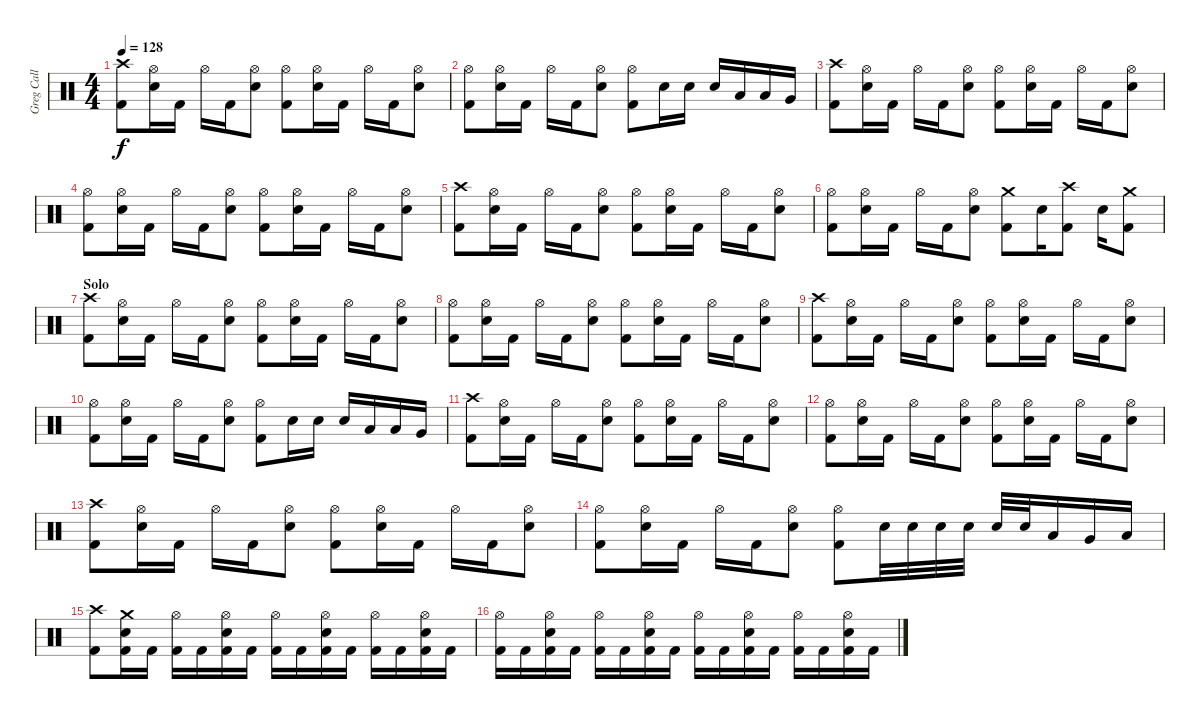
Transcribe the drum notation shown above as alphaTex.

\track ("Greg Call (Drums)" "Greg Call ") {instrument percussion}
\staff {score}
\articulation defaults
\ts (4 4)
\tempo 128
\clef neutral
\ks c
("Crash high (hit)" "Kick (hit) 2").8{dy f} ("Hi-Hat (open)" "Snare (hit) 2").16 "Kick (hit) 2".16 "Hi-Hat (open)".16 "Kick (hit) 2".16 ("Hi-Hat (open)" "Snare (hit) 2").8 ("Hi-Hat (open)" "Kick (hit) 2").8 ("Hi-Hat (open)" "Snare (hit) 2").16 "Kick (hit) 2".16 "Hi-Hat (open)".16 "Kick (hit) 2".16 ("Hi-Hat (open)" "Snare (hit) 2").8 |
("Hi-Hat (open)" "Kick (hit) 2").8 ("Hi-Hat (open)" "Snare (hit) 2").16 "Kick (hit) 2".16 "Hi-Hat (open)".16 "Kick (hit) 2".16 ("Hi-Hat (open)" "Snare (hit) 2").8 ("Hi-Hat (open)" "Kick (hit) 2").8 "Snare (hit) 2".16 "Snare (hit) 2".16 "Snare (hit) 2".16 "Low Tom (hit)".16 "Low Tom (hit)".16 "Very Low Tom (hit)".16 |
("Crash high (hit)" "Kick (hit) 2").8 ("Hi-Hat (open)" "Snare (hit) 2").16 "Kick (hit) 2".16 "Hi-Hat (open)".16 "Kick (hit) 2".16 ("Hi-Hat (open)" "Snare (hit) 2").8 ("Hi-Hat (open)" "Kick (hit) 2").8 ("Hi-Hat (open)" "Snare (hit) 2").16 "Kick (hit) 2".16 "Hi-Hat (open)".16 "Kick (hit) 2".16 ("Hi-Hat (open)" "Snare (hit) 2").8 |
("Hi-Hat (open)" "Kick (hit) 2").8 ("Hi-Hat (open)" "Snare (hit) 2").16 "Kick (hit) 2".16 "Hi-Hat (open)".16 "Kick (hit) 2".16 ("Hi-Hat (open)" "Snare (hit) 2").8 ("Hi-Hat (open)" "Kick (hit) 2").8 ("Hi-Hat (open)" "Snare (hit) 2").16 "Kick (hit) 2".16 "Hi-Hat (open)".16 "Kick (hit) 2".16 ("Hi-Hat (open)" "Snare (hit) 2").8 |
("Crash high (hit)" "Kick (hit) 2").8 ("Hi-Hat (open)" "Snare (hit) 2").16 "Kick (hit) 2".16 "Hi-Hat (open)".16 "Kick (hit) 2".16 ("Hi-Hat (open)" "Snare (hit) 2").8 ("Hi-Hat (open)" "Kick (hit) 2").8 ("Hi-Hat (open)" "Snare (hit) 2").16 "Kick (hit) 2".16 "Hi-Hat (open)".16 "Kick (hit) 2".16 ("Hi-Hat (open)" "Snare (hit) 2").8 |
("Hi-Hat (open)" "Kick (hit) 2").8 ("Hi-Hat (open)" "Snare (hit) 2").16 "Kick (hit) 2".16 "Hi-Hat (open)".16 "Kick (hit) 2".16 ("Hi-Hat (open)" "Snare (hit) 2").8 ("Crash medium (hit)" "Kick (hit) 2").8 "Snare (hit) 2".16 ("Crash high (hit)" "Kick (hit) 2").8 "Snare (hit) 2".16 ("Crash medium (hit)" "Kick (hit) 2").8 |
\section ("" "Solo")
("Crash high (hit)" "Kick (hit) 2").8 ("Hi-Hat (open)" "Snare (hit) 2").16 "Kick (hit) 2".16 "Hi-Hat (open)".16 "Kick (hit) 2".16 ("Hi-Hat (open)" "Snare (hit) 2").8 ("Hi-Hat (open)" "Kick (hit) 2").8 ("Hi-Hat (open)" "Snare (hit) 2").16 "Kick (hit) 2".16 "Hi-Hat (open)".16 "Kick (hit) 2".16 ("Hi-Hat (open)" "Snare (hit) 2").8 |
("Hi-Hat (open)" "Kick (hit) 2").8 ("Hi-Hat (open)" "Snare (hit) 2").16 "Kick (hit) 2".16 "Hi-Hat (open)".16 "Kick (hit) 2".16 ("Hi-Hat (open)" "Snare (hit) 2").8 ("Hi-Hat (open)" "Kick (hit) 2").8 ("Hi-Hat (open)" "Snare (hit) 2").16 "Kick (hit) 2".16 "Hi-Hat (open)".16 "Kick (hit) 2".16 ("Hi-Hat (open)" "Snare (hit) 2").8 |
("Crash high (hit)" "Kick (hit) 2").8 ("Hi-Hat (open)" "Snare (hit) 2").16 "Kick (hit) 2".16 "Hi-Hat (open)".16 "Kick (hit) 2".16 ("Hi-Hat (open)" "Snare (hit) 2").8 ("Hi-Hat (open)" "Kick (hit) 2").8 ("Hi-Hat (open)" "Snare (hit) 2").16 "Kick (hit) 2".16 "Hi-Hat (open)".16 "Kick (hit) 2".16 ("Hi-Hat (open)" "Snare (hit) 2").8 |
("Hi-Hat (open)" "Kick (hit) 2").8 ("Hi-Hat (open)" "Snare (hit) 2").16 "Kick (hit) 2".16 "Hi-Hat (open)".16 "Kick (hit) 2".16 ("Hi-Hat (open)" "Snare (hit) 2").8 ("Hi-Hat (open)" "Kick (hit) 2").8 "Snare (hit) 2".16 "Snare (hit) 2".16 "Snare (hit) 2".16 "Low Tom (hit)".16 "Low Tom (hit)".16 "Very Low Tom (hit)".16 |
("Crash high (hit)" "Kick (hit) 2").8 ("Hi-Hat (open)" "Snare (hit) 2").16 "Kick (hit) 2".16 "Hi-Hat (open)".16 "Kick (hit) 2".16 ("Hi-Hat (open)" "Snare (hit) 2").8 ("Hi-Hat (open)" "Kick (hit) 2").8 ("Hi-Hat (open)" "Snare (hit) 2").16 "Kick (hit) 2".16 "Hi-Hat (open)".16 "Kick (hit) 2".16 ("Hi-Hat (open)" "Snare (hit) 2").8 |
("Hi-Hat (open)" "Kick (hit) 2").8 ("Hi-Hat (open)" "Snare (hit) 2").16 "Kick (hit) 2".16 "Hi-Hat (open)".16 "Kick (hit) 2".16 ("Hi-Hat (open)" "Snare (hit) 2").8 ("Hi-Hat (open)" "Kick (hit) 2").8 ("Hi-Hat (open)" "Snare (hit) 2").16 "Kick (hit) 2".16 "Hi-Hat (open)".16 "Kick (hit) 2".16 ("Hi-Hat (open)" "Snare (hit) 2").8 |
("Crash high (hit)" "Kick (hit) 2").8 ("Hi-Hat (open)" "Snare (hit) 2").16 "Kick (hit) 2".16 "Hi-Hat (open)".16 "Kick (hit) 2".16 ("Hi-Hat (open)" "Snare (hit) 2").8 ("Hi-Hat (open)" "Kick (hit) 2").8 ("Hi-Hat (open)" "Snare (hit) 2").16 "Kick (hit) 2".16 "Hi-Hat (open)".16 "Kick (hit) 2".16 ("Hi-Hat (open)" "Snare (hit) 2").8 |
("Hi-Hat (open)" "Kick (hit) 2").8 ("Hi-Hat (open)" "Snare (hit) 2").16 "Kick (hit) 2".16 "Hi-Hat (open)".16 "Kick (hit) 2".16 ("Hi-Hat (open)" "Snare (hit) 2").8 ("Hi-Hat (open)" "Kick (hit) 2").8 "Snare (hit) 2".32 "Snare (hit) 2".32 "Snare (hit) 2".32 "Snare (hit) 2".32 "Snare (hit) 2".32 "Snare (hit) 2".32 "Low Tom (hit)".16 "Very Low Tom (hit)".16 "Low Floor Tom (hit)".16 |
("Kick (hit) 2" "Crash high (hit)").8 ("Crash medium (hit)" "Snare (hit) 2" "Kick (hit) 2").16 "Kick (hit) 2".16 ("Hi-Hat (open)" "Kick (hit) 2").16 "Kick (hit) 2".16 ("Kick (hit) 2" "Hi-Hat (open)" "Snare (hit) 2").16 "Kick (hit) 2".16 ("Hi-Hat (open)" "Kick (hit) 2").16 "Kick (hit) 2".16 ("Hi-Hat (open)" "Snare (hit) 2" "Kick (hit) 2").16 "Kick (hit) 2".16 ("Hi-Hat (open)" "Kick (hit) 2").16 "Kick (hit) 2".16 ("Hi-Hat (open)" "Snare (hit) 2" "Kick (hit) 2").16 "Kick (hit) 2".16 |
("Hi-Hat (open)" "Kick (hit) 2").16 "Kick (hit) 2".16 ("Hi-Hat (open)" "Snare (hit) 2" "Kick (hit) 2").16 "Kick (hit) 2".16 ("Hi-Hat (open)" "Kick (hit) 2").16 "Kick (hit) 2".16 ("Snare (hit) 2" "Hi-Hat (open)" "Kick (hit) 2").16 "Kick (hit) 2".16 ("Hi-Hat (open)" "Kick (hit) 2").16 "Kick (hit) 2".16 ("Snare (hit) 2" "Hi-Hat (open)" "Kick (hit) 2").16 "Kick (hit) 2".16 ("Hi-Hat (open)" "Kick (hit) 2").16 "Kick (hit) 2".16 ("Snare (hit) 2" "Hi-Hat (open)" "Kick (hit) 2").16 "Kick (hit) 2".16
